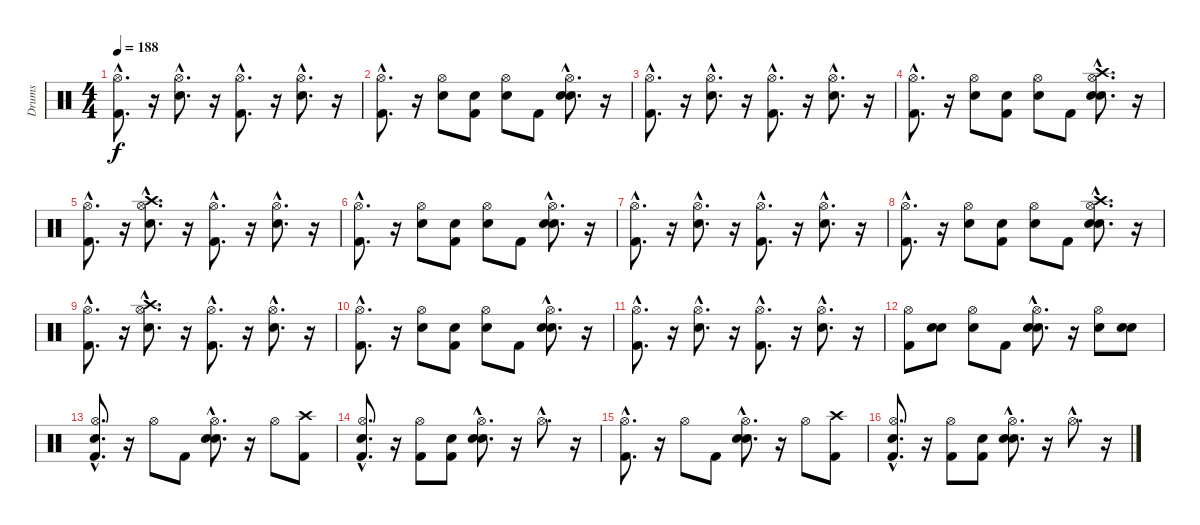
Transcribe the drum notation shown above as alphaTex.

\track ("Drums" "Drums") {instrument percussion}
\staff {score}
\articulation defaults
\ts (4 4)
\tempo 188
\clef neutral
\ks c
("Kick (hit) 2"{hac} "Hi-Hat (open)"{hac}).8{d dy f} r.16 ("Snare (hit) 2"{hac} "Hi-Hat (open)"{hac}).8{d} r.16 ("Kick (hit) 2"{hac} "Hi-Hat (open)"{hac}).8{d} r.16 ("Snare (hit) 2"{hac} "Hi-Hat (open)"{hac}).8{d} r.16 |
("Kick (hit) 2"{hac} "Hi-Hat (open)"{hac}).8{d} r.16 ("Snare (hit) 2" "Hi-Hat (open)").8 ("Snare (hit)" "Kick (hit) 2").8 ("Snare (hit)" "Hi-Hat (open)").8 "Kick (hit) 2".8 ("Snare (hit)"{hac} "Snare (hit) 2"{hac} "Hi-Hat (open)"{hac}).8{d} r.16 |
("Kick (hit) 2"{hac} "Hi-Hat (open)"{hac}).8{d} r.16 ("Snare (hit) 2"{hac} "Hi-Hat (open)"{hac}).8{d} r.16 ("Kick (hit) 2"{hac} "Hi-Hat (open)"{hac}).8{d} r.16 ("Snare (hit) 2"{hac} "Hi-Hat (open)"{hac}).8{d} r.16 |
("Kick (hit) 2"{hac} "Hi-Hat (open)"{hac}).8{d} r.16 ("Snare (hit) 2" "Hi-Hat (open)").8 ("Snare (hit)" "Kick (hit) 2").8 ("Snare (hit)" "Hi-Hat (open)").8 "Kick (hit) 2".8 ("Snare (hit)"{hac} "Snare (hit) 2"{hac} "Hi-Hat (open)"{hac} "Crash high (hit)"{hac}).8{d} r.16 |
("Kick (hit) 2"{hac} "Hi-Hat (open)"{hac}).8{d} r.16 ("Snare (hit) 2"{hac} "Hi-Hat (open)"{hac} "Crash high (hit)"{hac}).8{d} r.16 ("Kick (hit) 2"{hac} "Hi-Hat (open)"{hac}).8{d} r.16 ("Snare (hit) 2"{hac} "Hi-Hat (open)"{hac}).8{d} r.16 |
("Kick (hit) 2"{hac} "Hi-Hat (open)"{hac}).8{d} r.16 ("Snare (hit) 2" "Hi-Hat (open)").8 ("Snare (hit)" "Kick (hit) 2").8 ("Snare (hit)" "Hi-Hat (open)").8 "Kick (hit) 2".8 ("Snare (hit)"{hac} "Snare (hit) 2"{hac} "Hi-Hat (open)"{hac}).8{d} r.16 |
("Kick (hit) 2"{hac} "Hi-Hat (open)"{hac}).8{d} r.16 ("Snare (hit) 2"{hac} "Hi-Hat (open)"{hac}).8{d} r.16 ("Kick (hit) 2"{hac} "Hi-Hat (open)"{hac}).8{d} r.16 ("Snare (hit) 2"{hac} "Hi-Hat (open)"{hac}).8{d} r.16 |
("Kick (hit) 2"{hac} "Hi-Hat (open)"{hac}).8{d} r.16 ("Snare (hit) 2" "Hi-Hat (open)").8 ("Snare (hit)" "Kick (hit) 2").8 ("Snare (hit)" "Hi-Hat (open)").8 "Kick (hit) 2".8 ("Snare (hit)"{hac} "Snare (hit) 2"{hac} "Hi-Hat (open)"{hac} "Crash high (hit)"{hac}).8{d} r.16 |
("Kick (hit) 2"{hac} "Hi-Hat (open)"{hac}).8{d} r.16 ("Snare (hit) 2"{hac} "Hi-Hat (open)"{hac} "Crash high (hit)"{hac}).8{d} r.16 ("Kick (hit) 2"{hac} "Hi-Hat (open)"{hac}).8{d} r.16 ("Snare (hit) 2"{hac} "Hi-Hat (open)"{hac}).8{d} r.16 |
("Kick (hit) 2"{hac} "Hi-Hat (open)"{hac}).8{d} r.16 ("Snare (hit) 2" "Hi-Hat (open)").8 ("Snare (hit)" "Kick (hit) 2").8 ("Snare (hit)" "Hi-Hat (open)").8 "Kick (hit) 2".8 ("Snare (hit)"{hac} "Snare (hit) 2"{hac} "Hi-Hat (open)"{hac}).8{d} r.16 |
("Kick (hit) 2"{hac} "Hi-Hat (open)"{hac}).8{d} r.16 ("Snare (hit) 2"{hac} "Hi-Hat (open)"{hac}).8{d} r.16 ("Kick (hit) 2"{hac} "Hi-Hat (open)"{hac}).8{d} r.16 ("Snare (hit) 2"{hac} "Hi-Hat (open)"{hac}).8{d} r.16 |
("Kick (hit) 2" "Hi-Hat (open)").8 ("Snare (hit)" "Snare (hit) 2").8 ("Snare (hit)" "Hi-Hat (open)").8 "Kick (hit) 2".8 ("Snare (hit)"{hac} "Snare (hit) 2"{hac} "Hi-Hat (open)"{hac}).8{d} r.16 ("Snare (hit) 2" "Hi-Hat (open)").8 ("Snare (hit)" "Snare (hit) 2").8 |
("Snare (hit)"{hac} "Kick (hit) 2"{hac} "Hi-Hat (open)"{hac}).8{d} r.16 "Hi-Hat (open)".8 "Kick (hit) 2".8 ("Snare (hit)"{hac} "Snare (hit) 2"{hac} "Hi-Hat (open)"{hac}).8{d} r.16 "Hi-Hat (open)".8 ("Kick (hit) 2" "Crash high (hit)").8 |
("Snare (hit)"{hac} "Kick (hit) 2"{hac} "Hi-Hat (open)"{hac}).8{d} r.16 ("Kick (hit) 2" "Hi-Hat (open)").8 ("Snare (hit)" "Kick (hit) 2").8 ("Snare (hit)"{hac} "Snare (hit) 2"{hac} "Hi-Hat (open)"{hac}).8{d} r.16 "Hi-Hat (open)"{hac}.8{d} r.16 |
("Kick (hit) 2"{hac} "Hi-Hat (open)"{hac}).8{d} r.16 "Hi-Hat (open)".8 "Kick (hit) 2".8 ("Snare (hit)"{hac} "Snare (hit) 2"{hac} "Hi-Hat (open)"{hac}).8{d} r.16 "Hi-Hat (open)".8 ("Kick (hit) 2" "Crash high (hit)").8 |
("Snare (hit)"{hac} "Kick (hit) 2"{hac} "Hi-Hat (open)"{hac}).8{d} r.16 ("Kick (hit) 2" "Hi-Hat (open)").8 ("Snare (hit)" "Kick (hit) 2").8 ("Snare (hit)"{hac} "Snare (hit) 2"{hac} "Hi-Hat (open)"{hac}).8{d} r.16 "Hi-Hat (open)"{hac}.8{d} r.16
